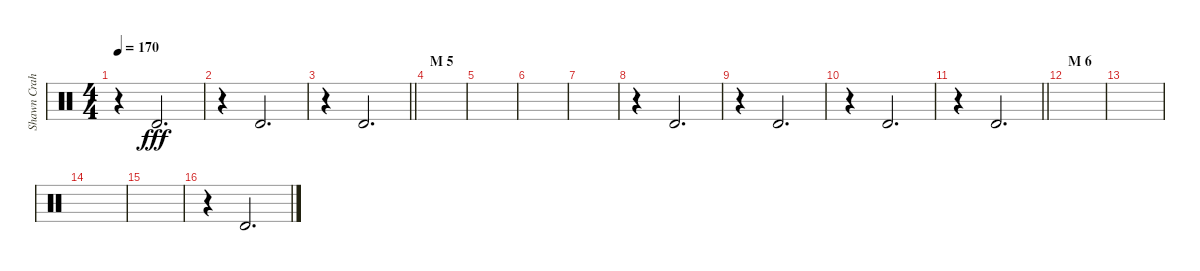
\track ("Shawn Crahan" "Shawn Crah") {instrument percussion}
\staff {score}
\articulation defaults
\ts (4 4)
\tempo 170
\clef neutral
\ks c
r.4{dy fff} "Timbale high (hit)".2{d} |
r.4 "Timbale high (hit)".2{d} |
\barLineRight lightlight
r.4 "Timbale high (hit)".2{d} |
\section ("" "M 5")
|
|
|
|
r.4 "Timbale high (hit)".2{d} |
r.4 "Timbale high (hit)".2{d} |
r.4 "Timbale high (hit)".2{d} |
\barLineRight lightlight
r.4 "Timbale high (hit)".2{d} |
\section ("" "M 6")
|
|
|
|
r.4 "Timbale high (hit)".2{d}
